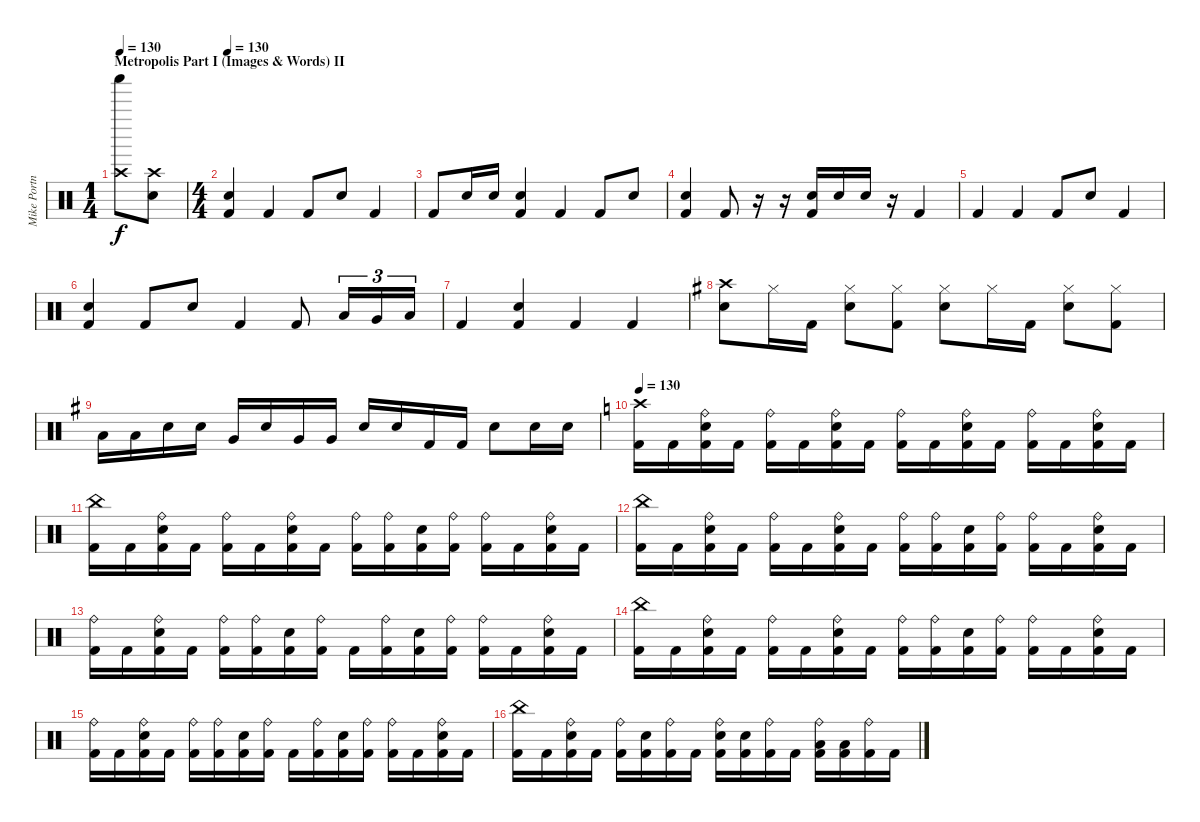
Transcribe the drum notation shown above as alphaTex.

\track ("Mike Portnoy Drums" "Mike Portn") {instrument percussion}
\staff {score}
\articulation defaults
\ts (1 4)
\section ("" "Metropolis Part I (Images & Words) II")
\tempo 130
\clef neutral
\ks c
("Crash high (hit)" "Shaker (hit)").8{dy f} ("Snare (hit) 2" "Crash high (hit)").8 |
\ts (4 4)
\tempo 130
("Electric Snare (hit)" "Kick (hit) 2").4 "Kick (hit) 2".4 "Kick (hit) 2".8 "Electric Snare (hit)".8 "Kick (hit) 2".4 |
"Kick (hit) 2".8 "Electric Snare (hit)".16 "Electric Snare (hit)".16 ("Electric Snare (hit)" "Kick (hit) 2").4 "Kick (hit) 2".4 "Kick (hit) 2".8 "Electric Snare (hit)".8 |
("Electric Snare (hit)" "Kick (hit) 2").4 "Kick (hit) 2".8 r.16 r.16 ("Electric Snare (hit)" "Kick (hit) 2").16 "Electric Snare (hit)".16 "Electric Snare (hit)".16 r.16 "Kick (hit) 2".4 |
"Kick (hit) 2".4 "Kick (hit) 2".4 "Kick (hit) 2".8 "Electric Snare (hit)".8 "Kick (hit) 2".4 |
("Electric Snare (hit)" "Kick (hit) 2").4 "Kick (hit) 2".8 "Electric Snare (hit)".8 "Kick (hit) 2".4 "Kick (hit) 2".8 "Low Tom (hit)".16{tu (3 2)} "Very Low Tom (hit)".16{tu (3 2)} "Low Floor Tom (hit)".16{tu (3 2)} |
"Kick (hit) 2".4 ("Electric Snare (hit)" "Kick (hit) 2").4 "Kick (hit) 2".4 "Kick (hit) 2".4 |
\ks g
("Crash high (hit)" "Electric Snare (hit)").8 "Hi-Hat (closed)".16 "Kick (hit) 2".16 ("Hi-Hat (closed)" "Electric Snare (hit)").8 ("Hi-Hat (closed)" "Kick (hit) 2").8 ("Hi-Hat (closed)" "Electric Snare (hit)").8 "Hi-Hat (closed)".16 "Kick (hit) 2".16 ("Hi-Hat (closed)" "Electric Snare (hit)").8 ("Hi-Hat (closed)" "Kick (hit) 2").8 |
"Low Tom (hit)".16 "Low Tom (hit)".16 "Electric Snare (hit)".16 "Electric Snare (hit)".16 "Very Low Tom (hit)".16 "Electric Snare (hit)".16 "Very Low Tom (hit)".16 "Very Low Tom (hit)".16 "Electric Snare (hit)".16 "Electric Snare (hit)".16 "Kick (hit) 2".16 "Kick (hit) 2".16 "Electric Snare (hit)".8 "Electric Snare (hit)".16 "Electric Snare (hit)".16 |
\tempo 130
\ks c
("Crash high (hit)" "Kick (hit) 2").16 "Kick (hit) 2".16 ("Ride (bell)" "Electric Snare (hit)" "Kick (hit) 2").16 "Kick (hit) 2".16 ("Ride (bell)" "Kick (hit) 2").16 "Kick (hit) 2".16 ("Ride (bell)" "Electric Snare (hit)" "Kick (hit) 2").16 "Kick (hit) 2".16 ("Ride (bell)" "Kick (hit) 2").16 "Kick (hit) 2".16 ("Ride (bell)" "Electric Snare (hit)" "Kick (hit) 2").16 "Kick (hit) 2".16 ("Ride (bell)" "Kick (hit) 2").16 "Kick (hit) 2".16 ("Ride (bell)" "Electric Snare (hit)" "Kick (hit) 2").16 "Kick (hit) 2".16 |
("China (hit)" "Kick (hit) 2").16 "Kick (hit) 2".16 ("Ride (bell)" "Electric Snare (hit)" "Kick (hit) 2").16 "Kick (hit) 2".16 ("Ride (bell)" "Kick (hit) 2").16 "Kick (hit) 2".16 ("Ride (bell)" "Electric Snare (hit)" "Kick (hit) 2").16 "Kick (hit) 2".16 ("Ride (bell)" "Kick (hit) 2").16 ("Ride (bell)" "Kick (hit) 2").16 ("Electric Snare (hit)" "Kick (hit) 2").16 ("Ride (bell)" "Kick (hit) 2").16 ("Ride (bell)" "Kick (hit) 2").16 "Kick (hit) 2".16 ("Ride (bell)" "Electric Snare (hit)" "Kick (hit) 2").16 "Kick (hit) 2".16 |
("China (hit)" "Kick (hit) 2").16 "Kick (hit) 2".16 ("Ride (bell)" "Electric Snare (hit)" "Kick (hit) 2").16 "Kick (hit) 2".16 ("Ride (bell)" "Kick (hit) 2").16 "Kick (hit) 2".16 ("Ride (bell)" "Electric Snare (hit)" "Kick (hit) 2").16 "Kick (hit) 2".16 ("Ride (bell)" "Kick (hit) 2").16 ("Ride (bell)" "Kick (hit) 2").16 ("Electric Snare (hit)" "Kick (hit) 2").16 ("Ride (bell)" "Kick (hit) 2").16 ("Ride (bell)" "Kick (hit) 2").16 "Kick (hit) 2".16 ("Ride (bell)" "Electric Snare (hit)" "Kick (hit) 2").16 "Kick (hit) 2".16 |
("Ride (bell)" "Kick (hit) 2").16 "Kick (hit) 2".16 ("Ride (bell)" "Electric Snare (hit)" "Kick (hit) 2").16 "Kick (hit) 2".16 ("Ride (bell)" "Kick (hit) 2").16 ("Ride (bell)" "Kick (hit) 2").16 ("Electric Snare (hit)" "Kick (hit) 2").16 ("Ride (bell)" "Kick (hit) 2").16 "Kick (hit) 2".16 ("Ride (bell)" "Kick (hit) 2").16 ("Electric Snare (hit)" "Kick (hit) 2").16 ("Ride (bell)" "Kick (hit) 2").16 ("Ride (bell)" "Kick (hit) 2").16 "Kick (hit) 2".16 ("Ride (bell)" "Electric Snare (hit)" "Kick (hit) 2").16 "Kick (hit) 2".16 |
("China (hit)" "Kick (hit) 2").16 "Kick (hit) 2".16 ("Ride (bell)" "Electric Snare (hit)" "Kick (hit) 2").16 "Kick (hit) 2".16 ("Ride (bell)" "Kick (hit) 2").16 "Kick (hit) 2".16 ("Ride (bell)" "Electric Snare (hit)" "Kick (hit) 2").16 "Kick (hit) 2".16 ("Ride (bell)" "Kick (hit) 2").16 ("Ride (bell)" "Kick (hit) 2").16 ("Electric Snare (hit)" "Kick (hit) 2").16 ("Ride (bell)" "Kick (hit) 2").16 ("Ride (bell)" "Kick (hit) 2").16 "Kick (hit) 2".16 ("Ride (bell)" "Electric Snare (hit)" "Kick (hit) 2").16 "Kick (hit) 2".16 |
("Ride (bell)" "Kick (hit) 2").16 "Kick (hit) 2".16 ("Ride (bell)" "Electric Snare (hit)" "Kick (hit) 2").16 "Kick (hit) 2".16 ("Ride (bell)" "Kick (hit) 2").16 ("Ride (bell)" "Kick (hit) 2").16 ("Electric Snare (hit)" "Kick (hit) 2").16 ("Ride (bell)" "Kick (hit) 2").16 "Kick (hit) 2".16 ("Ride (bell)" "Kick (hit) 2").16 ("Electric Snare (hit)" "Kick (hit) 2").16 ("Ride (bell)" "Kick (hit) 2").16 ("Ride (bell)" "Kick (hit) 2").16 "Kick (hit) 2".16 ("Ride (bell)" "Electric Snare (hit)" "Kick (hit) 2").16 "Kick (hit) 2".16 |
("China (hit)" "Kick (hit) 2").16 "Kick (hit) 2".16 ("Ride (bell)" "Electric Snare (hit)" "Kick (hit) 2").16 "Kick (hit) 2".16 ("Ride (bell)" "Kick (hit) 2").16 ("Electric Snare (hit)" "Kick (hit) 2").16 ("Ride (bell)" "Kick (hit) 2").16 "Kick (hit) 2".16 ("Ride (bell)" "Electric Snare (hit)" "Kick (hit) 2").16 ("Electric Snare (hit)" "Kick (hit) 2").16 ("Ride (bell)" "Kick (hit) 2").16 "Kick (hit) 2".16 ("Ride (bell)" "Low Tom (hit)" "Kick (hit) 2").16 ("Low Tom (hit)" "Kick (hit) 2").16 ("Ride (bell)" "Kick (hit) 2").16 "Kick (hit) 2".16
